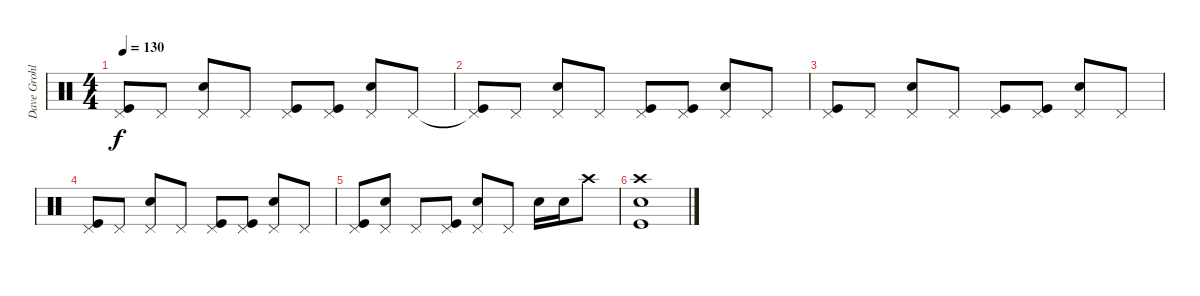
\track ("Dave Grohl" "Dave Grohl") {instrument percussion}
\staff {score}
\articulation defaults
\ts (4 4)
\tempo 130
\clef neutral
\ks c
("Pedal Hi-Hat (hit)" "Kick (hit)").8{dy f} "Pedal Hi-Hat (hit)".8 ("Pedal Hi-Hat (hit)" "Snare (hit) 2").8 "Pedal Hi-Hat (hit)".8 ("Pedal Hi-Hat (hit)" "Kick (hit)").8 ("Pedal Hi-Hat (hit)" "Kick (hit)").8 ("Pedal Hi-Hat (hit)" "Snare (hit) 2").8 "Pedal Hi-Hat (hit)".8 |
("Pedal Hi-Hat (hit)"{t} "Kick (hit)").8 "Pedal Hi-Hat (hit)".8 ("Pedal Hi-Hat (hit)" "Snare (hit) 2").8 "Pedal Hi-Hat (hit)".8 ("Pedal Hi-Hat (hit)" "Kick (hit)").8 ("Pedal Hi-Hat (hit)" "Kick (hit)").8 ("Pedal Hi-Hat (hit)" "Snare (hit) 2").8 "Pedal Hi-Hat (hit)".8 |
("Pedal Hi-Hat (hit)" "Kick (hit)").8 "Pedal Hi-Hat (hit)".8 ("Pedal Hi-Hat (hit)" "Snare (hit) 2").8 "Pedal Hi-Hat (hit)".8 ("Pedal Hi-Hat (hit)" "Kick (hit)").8 ("Pedal Hi-Hat (hit)" "Kick (hit)").8 ("Pedal Hi-Hat (hit)" "Snare (hit) 2").8 "Pedal Hi-Hat (hit)".8 |
("Pedal Hi-Hat (hit)" "Kick (hit)").8 "Pedal Hi-Hat (hit)".8 ("Pedal Hi-Hat (hit)" "Snare (hit) 2").8 "Pedal Hi-Hat (hit)".8 ("Pedal Hi-Hat (hit)" "Kick (hit)").8 ("Pedal Hi-Hat (hit)" "Kick (hit)").8 ("Pedal Hi-Hat (hit)" "Snare (hit) 2").8 "Pedal Hi-Hat (hit)".8 |
("Pedal Hi-Hat (hit)" "Kick (hit)").8 ("Pedal Hi-Hat (hit)" "Snare (hit) 2").8 "Pedal Hi-Hat (hit)".8 ("Pedal Hi-Hat (hit)" "Kick (hit)").8 ("Pedal Hi-Hat (hit)" "Snare (hit) 2").8 "Pedal Hi-Hat (hit)".8 "Snare (hit) 2".16 "Snare (hit) 2".16 "Crash high (hit)".8 |
("Crash high (hit)" "Kick (hit)" "Snare (hit) 2").1
